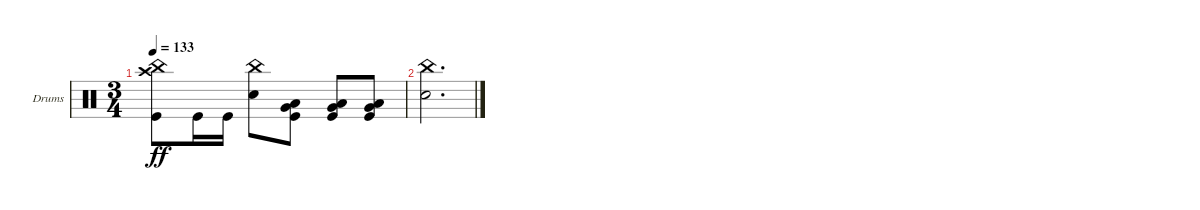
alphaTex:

\bracketExtendMode groupsimilarinstruments
\firstSystemTrackNameOrientation horizontal
\otherSystemsTrackNameOrientation horizontal
\track ("Drumkit" "Drums") {instrument percussion}
\staff {score}
\articulation defaults
\ts (3 4)
\tempo 133
\clef neutral
\ks c
("Kick (hit)" "Crash high (hit)" "China (hit)").8{dy ff} "Kick (hit)".16 "Kick (hit)".16 ("Snare (hit) 2" "China (hit)").8 ("Kick (hit)" "Very Low Tom (hit)" "Low Tom (hit)").8 ("Kick (hit)" "Very Low Tom (hit)" "Low Tom (hit)").8 ("Kick (hit)" "Very Low Tom (hit)" "Low Tom (hit)").8 |
("Snare (hit) 2" "China (hit)").2{d}
